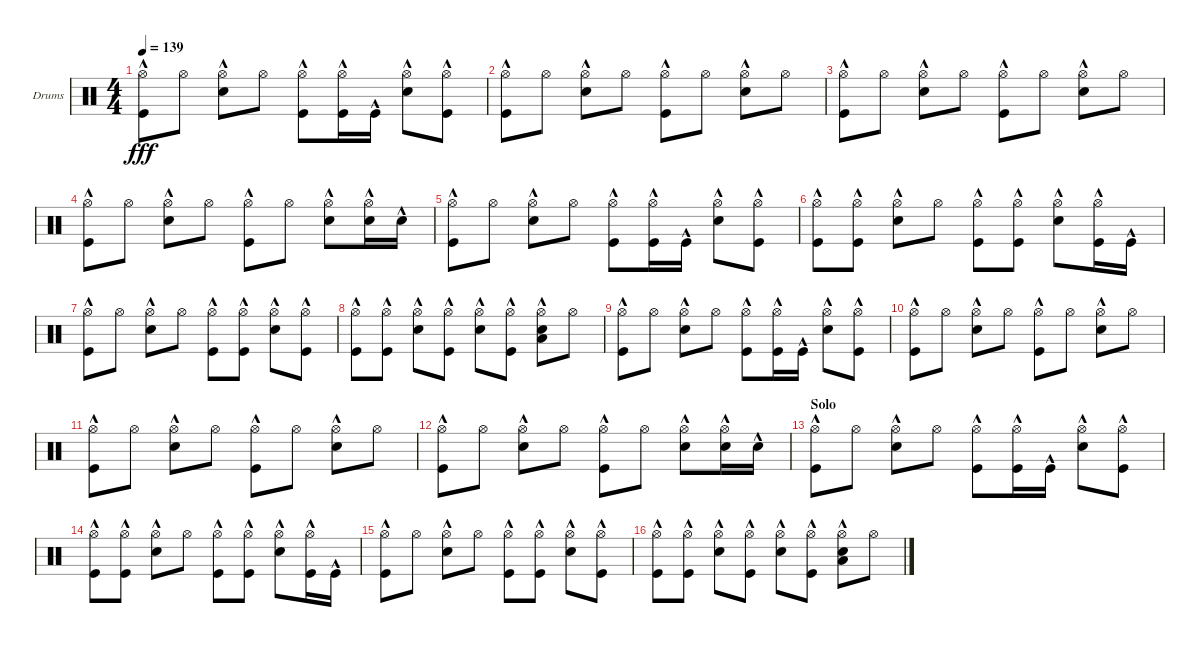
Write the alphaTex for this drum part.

\bracketExtendMode groupsimilarinstruments
\firstSystemTrackNameOrientation horizontal
\otherSystemsTrackNameOrientation horizontal
\track ("Drumkit" "Drums") {instrument percussion}
\staff {score}
\articulation defaults
\ts (4 4)
\tempo 139
\clef neutral
\ks c
("Hi-Hat (open)"{hac} "Kick (hit)"{hac}).8{dy fff} "Hi-Hat (open)".8 ("Hi-Hat (open)"{hac} "Snare (hit) 2"{hac}).8 "Hi-Hat (open)".8 ("Hi-Hat (open)"{hac} "Kick (hit)"{hac}).8 ("Hi-Hat (open)" "Kick (hit)"{hac}).16 "Kick (hit)"{hac}.16 ("Hi-Hat (open)"{hac} "Snare (hit) 2"{hac}).8 ("Hi-Hat (open)" "Kick (hit)"{hac}).8 |
("Hi-Hat (open)"{hac} "Kick (hit)"{hac}).8 "Hi-Hat (open)".8 ("Hi-Hat (open)"{hac} "Snare (hit) 2"{hac}).8 "Hi-Hat (open)".8 ("Hi-Hat (open)"{hac} "Kick (hit)"{hac}).8 "Hi-Hat (open)".8 ("Hi-Hat (open)"{hac} "Snare (hit) 2"{hac}).8 "Hi-Hat (open)".8 |
("Hi-Hat (open)"{hac} "Kick (hit)"{hac}).8 "Hi-Hat (open)".8 ("Hi-Hat (open)"{hac} "Snare (hit) 2"{hac}).8 "Hi-Hat (open)".8 ("Hi-Hat (open)"{hac} "Kick (hit)"{hac}).8 "Hi-Hat (open)".8 ("Hi-Hat (open)"{hac} "Snare (hit) 2"{hac}).8 "Hi-Hat (open)".8 |
("Hi-Hat (open)"{hac} "Kick (hit)"{hac}).8 "Hi-Hat (open)".8 ("Hi-Hat (open)"{hac} "Snare (hit) 2"{hac}).8 "Hi-Hat (open)".8 ("Hi-Hat (open)"{hac} "Kick (hit)"{hac}).8 "Hi-Hat (open)".8 ("Hi-Hat (open)"{hac} "Snare (hit) 2"{hac}).8 ("Hi-Hat (open)" "Snare (hit) 2"{hac}).16 "Snare (hit) 2"{hac}.16 |
("Hi-Hat (open)"{hac} "Kick (hit)"{hac}).8 "Hi-Hat (open)".8 ("Hi-Hat (open)"{hac} "Snare (hit) 2"{hac}).8 "Hi-Hat (open)".8 ("Hi-Hat (open)"{hac} "Kick (hit)"{hac}).8 ("Hi-Hat (open)" "Kick (hit)"{hac}).16 "Kick (hit)"{hac}.16 ("Hi-Hat (open)"{hac} "Snare (hit) 2"{hac}).8 ("Hi-Hat (open)" "Kick (hit)"{hac}).8 |
("Hi-Hat (open)"{hac} "Kick (hit)"{hac}).8 ("Hi-Hat (open)" "Kick (hit)"{hac}).8 ("Hi-Hat (open)"{hac} "Snare (hit) 2"{hac}).8 "Hi-Hat (open)".8 ("Hi-Hat (open)"{hac} "Kick (hit)"{hac}).8 ("Hi-Hat (open)" "Kick (hit)"{hac}).8 ("Hi-Hat (open)"{hac} "Snare (hit) 2"{hac}).8 ("Hi-Hat (open)" "Kick (hit)"{hac}).16 "Kick (hit)"{hac}.16 |
("Hi-Hat (open)"{hac} "Kick (hit)"{hac}).8 "Hi-Hat (open)".8 ("Hi-Hat (open)"{hac} "Snare (hit) 2"{hac}).8 "Hi-Hat (open)".8 ("Hi-Hat (open)"{hac} "Kick (hit)"{hac}).8 ("Hi-Hat (open)" "Kick (hit)"{hac}).8 ("Hi-Hat (open)"{hac} "Snare (hit) 2"{hac}).8 ("Hi-Hat (open)" "Kick (hit)"{hac}).8 |
("Hi-Hat (open)"{hac} "Kick (hit)"{hac}).8 ("Hi-Hat (open)" "Kick (hit)"{hac}).8 ("Hi-Hat (open)"{hac} "Snare (hit) 2"{hac}).8 ("Hi-Hat (open)" "Kick (hit)"{hac}).8 ("Hi-Hat (open)"{hac} "Snare (hit) 2"{hac}).8 ("Hi-Hat (open)" "Kick (hit)"{hac}).8 ("Hi-Hat (open)"{hac} "Snare (hit) 2"{hac} "Low Tom (hit)"{hac}).8 "Hi-Hat (open)".8 |
("Hi-Hat (open)"{hac} "Kick (hit)"{hac}).8 "Hi-Hat (open)".8 ("Hi-Hat (open)"{hac} "Snare (hit) 2"{hac}).8 "Hi-Hat (open)".8 ("Hi-Hat (open)"{hac} "Kick (hit)"{hac}).8 ("Hi-Hat (open)" "Kick (hit)"{hac}).16 "Kick (hit)"{hac}.16 ("Hi-Hat (open)"{hac} "Snare (hit) 2"{hac}).8 ("Hi-Hat (open)" "Kick (hit)"{hac}).8 |
("Hi-Hat (open)"{hac} "Kick (hit)"{hac}).8 "Hi-Hat (open)".8 ("Hi-Hat (open)"{hac} "Snare (hit) 2"{hac}).8 "Hi-Hat (open)".8 ("Hi-Hat (open)"{hac} "Kick (hit)"{hac}).8 "Hi-Hat (open)".8 ("Hi-Hat (open)"{hac} "Snare (hit) 2"{hac}).8 "Hi-Hat (open)".8 |
("Hi-Hat (open)"{hac} "Kick (hit)"{hac}).8 "Hi-Hat (open)".8 ("Hi-Hat (open)"{hac} "Snare (hit) 2"{hac}).8 "Hi-Hat (open)".8 ("Hi-Hat (open)"{hac} "Kick (hit)"{hac}).8 "Hi-Hat (open)".8 ("Hi-Hat (open)"{hac} "Snare (hit) 2"{hac}).8 "Hi-Hat (open)".8 |
("Hi-Hat (open)"{hac} "Kick (hit)"{hac}).8 "Hi-Hat (open)".8 ("Hi-Hat (open)"{hac} "Snare (hit) 2"{hac}).8 "Hi-Hat (open)".8 ("Hi-Hat (open)"{hac} "Kick (hit)"{hac}).8 "Hi-Hat (open)".8 ("Hi-Hat (open)"{hac} "Snare (hit) 2"{hac}).8 ("Hi-Hat (open)" "Snare (hit) 2"{hac}).16 "Snare (hit) 2"{hac}.16 |
\section ("" "Solo")
("Hi-Hat (open)"{hac} "Kick (hit)"{hac}).8 "Hi-Hat (open)".8 ("Hi-Hat (open)"{hac} "Snare (hit) 2"{hac}).8 "Hi-Hat (open)".8 ("Hi-Hat (open)"{hac} "Kick (hit)"{hac}).8 ("Hi-Hat (open)" "Kick (hit)"{hac}).16 "Kick (hit)"{hac}.16 ("Hi-Hat (open)"{hac} "Snare (hit) 2"{hac}).8 ("Hi-Hat (open)" "Kick (hit)"{hac}).8 |
("Hi-Hat (open)"{hac} "Kick (hit)"{hac}).8 ("Hi-Hat (open)" "Kick (hit)"{hac}).8 ("Hi-Hat (open)"{hac} "Snare (hit) 2"{hac}).8 "Hi-Hat (open)".8 ("Hi-Hat (open)"{hac} "Kick (hit)"{hac}).8 ("Hi-Hat (open)" "Kick (hit)"{hac}).8 ("Hi-Hat (open)"{hac} "Snare (hit) 2"{hac}).8 ("Hi-Hat (open)" "Kick (hit)"{hac}).16 "Kick (hit)"{hac}.16 |
("Hi-Hat (open)"{hac} "Kick (hit)"{hac}).8 "Hi-Hat (open)".8 ("Hi-Hat (open)"{hac} "Snare (hit) 2"{hac}).8 "Hi-Hat (open)".8 ("Hi-Hat (open)"{hac} "Kick (hit)"{hac}).8 ("Hi-Hat (open)" "Kick (hit)"{hac}).8 ("Hi-Hat (open)"{hac} "Snare (hit) 2"{hac}).8 ("Hi-Hat (open)" "Kick (hit)"{hac}).8 |
("Hi-Hat (open)"{hac} "Kick (hit)"{hac}).8 ("Hi-Hat (open)" "Kick (hit)"{hac}).8 ("Hi-Hat (open)"{hac} "Snare (hit) 2"{hac}).8 ("Hi-Hat (open)" "Kick (hit)"{hac}).8 ("Hi-Hat (open)"{hac} "Snare (hit) 2"{hac}).8 ("Hi-Hat (open)" "Kick (hit)"{hac}).8 ("Hi-Hat (open)"{hac} "Snare (hit) 2"{hac} "Low Tom (hit)"{hac}).8 "Hi-Hat (open)".8
